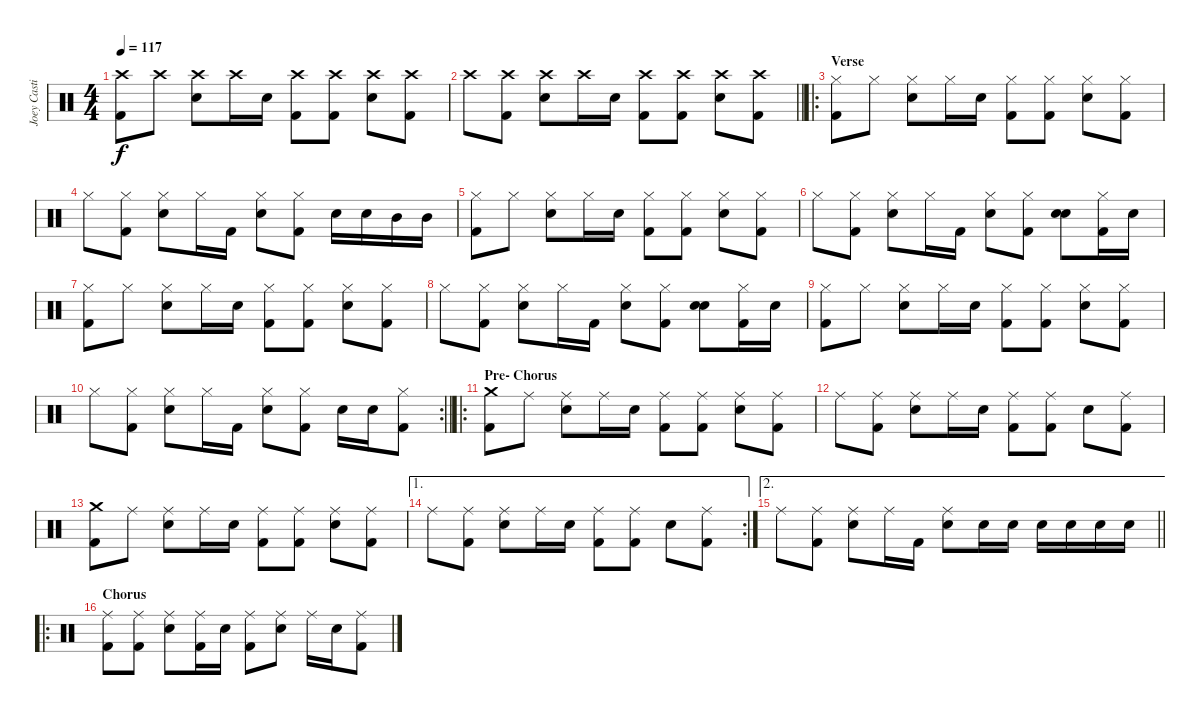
\track ("Joey Castillo" "Joey Casti") {instrument percussion}
\staff {score}
\articulation defaults
\ts (4 4)
\tempo 117
\clef neutral
\ks c
("Crash high (hit)" "Kick (hit) 2").8{dy f} "Crash high (hit)".8 ("Crash high (hit)" "Snare (hit) 2").8 "Crash high (hit)".16 "Snare (hit) 2".16 ("Crash high (hit)" "Kick (hit) 2").8 ("Crash high (hit)" "Kick (hit) 2").8 ("Crash high (hit)" "Snare (hit) 2").8 ("Crash high (hit)" "Kick (hit) 2").8 |
\barLineRight lightlight "Crash high (hit)".8
("Crash high (hit)" "Kick (hit) 2").8 ("Crash high (hit)" "Snare (hit) 2").8 "Crash high (hit)".16 "Snare (hit) 2".16 ("Crash high (hit)" "Kick (hit) 2").8 ("Crash high (hit)" "Kick (hit) 2").8 ("Crash high (hit)" "Snare (hit) 2").8 ("Crash high (hit)" "Kick (hit) 2").8 |
\ro
\section ("" "Verse")
("Hi-Hat (closed)" "Kick (hit) 2").8 "Hi-Hat (closed)".8 ("Hi-Hat (closed)" "Snare (hit) 2").8 "Hi-Hat (closed)".16 "Snare (hit) 2".16 ("Hi-Hat (closed)" "Kick (hit) 2").8 ("Hi-Hat (closed)" "Kick (hit) 2").8 ("Hi-Hat (closed)" "Snare (hit) 2").8 ("Hi-Hat (closed)" "Kick (hit) 2").8 |
"Hi-Hat (closed)".8 ("Hi-Hat (closed)" "Kick (hit) 2").8 ("Hi-Hat (closed)" "Snare (hit) 2").8 "Hi-Hat (closed)".16 "Kick (hit) 2".16 ("Hi-Hat (closed)" "Snare (hit) 2").8 ("Hi-Hat (closed)" "Kick (hit) 2").8 "Snare (hit) 2".16 "Snare (hit) 2".16 "Mid Tom (hit)".16 "Mid Tom (hit)".16 |
("Hi-Hat (closed)" "Kick (hit) 2").8 "Hi-Hat (closed)".8 ("Hi-Hat (closed)" "Snare (hit) 2").8 "Hi-Hat (closed)".16 "Snare (hit) 2".16 ("Hi-Hat (closed)" "Kick (hit) 2").8 ("Hi-Hat (closed)" "Kick (hit) 2").8 ("Hi-Hat (closed)" "Snare (hit) 2").8 ("Hi-Hat (closed)" "Kick (hit) 2").8 |
"Hi-Hat (closed)".8 ("Hi-Hat (closed)" "Kick (hit) 2").8 ("Hi-Hat (closed)" "Snare (hit) 2").8 "Hi-Hat (closed)".16 "Kick (hit) 2".16 ("Hi-Hat (closed)" "Snare (hit) 2").8 ("Hi-Hat (closed)" "Kick (hit) 2").8 ("Snare (hit) 2" "Snare (hit) 2").8{bd 240} ("Hi-Hat (closed)" "Kick (hit) 2").16 "Snare (hit) 2".16 |
("Hi-Hat (closed)" "Kick (hit) 2").8 "Hi-Hat (closed)".8 ("Hi-Hat (closed)" "Snare (hit) 2").8 "Hi-Hat (closed)".16 "Snare (hit) 2".16 ("Hi-Hat (closed)" "Kick (hit) 2").8 ("Hi-Hat (closed)" "Kick (hit) 2").8 ("Hi-Hat (closed)" "Snare (hit) 2").8 ("Hi-Hat (closed)" "Kick (hit) 2").8 |
"Hi-Hat (closed)".8 ("Hi-Hat (closed)" "Kick (hit) 2").8 ("Hi-Hat (closed)" "Snare (hit) 2").8 "Hi-Hat (closed)".16 "Kick (hit) 2".16 ("Hi-Hat (closed)" "Snare (hit) 2").8 ("Hi-Hat (closed)" "Kick (hit) 2").8 ("Snare (hit) 2" "Snare (hit) 2").8{bd 240} ("Hi-Hat (closed)" "Kick (hit) 2").16 "Snare (hit) 2".16 |
("Hi-Hat (closed)" "Kick (hit) 2").8 "Hi-Hat (closed)".8 ("Hi-Hat (closed)" "Snare (hit) 2").8 "Hi-Hat (closed)".16 "Snare (hit) 2".16 ("Hi-Hat (closed)" "Kick (hit) 2").8 ("Hi-Hat (closed)" "Kick (hit) 2").8 ("Hi-Hat (closed)" "Snare (hit) 2").8 ("Hi-Hat (closed)" "Kick (hit) 2").8 |
\rc 2
\barLineRight lightlight "Hi-Hat (closed)".8
("Hi-Hat (closed)" "Kick (hit) 2").8 ("Hi-Hat (closed)" "Snare (hit) 2").8 "Hi-Hat (closed)".16 "Kick (hit) 2".16 ("Hi-Hat (closed)" "Snare (hit) 2").8 ("Hi-Hat (closed)" "Kick (hit) 2").8 "Snare (hit) 2".16 "Snare (hit) 2".16 ("Hi-Hat (closed)" "Kick (hit) 2").8 |
\ro
\section ("" "Pre- Chorus")
("Crash medium (hit)" "Kick (hit) 2").8 "Ride (middle)".8 ("Ride (middle)" "Snare (hit) 2").8 "Ride (middle)".16 "Snare (hit) 2".16 ("Ride (middle)" "Kick (hit) 2").8 ("Ride (middle)" "Kick (hit) 2").8 ("Ride (middle)" "Snare (hit) 2").8 ("Ride (middle)" "Kick (hit) 2").8 |
"Ride (middle)".8 ("Ride (middle)" "Kick (hit) 2").8 ("Ride (middle)" "Snare (hit) 2").8 "Ride (middle)".16 "Snare (hit) 2".16 ("Ride (middle)" "Kick (hit) 2").8 ("Ride (middle)" "Kick (hit) 2").8 "Snare (hit) 2".8 ("Ride (middle)" "Kick (hit) 2").8 |
("Crash medium (hit)" "Kick (hit) 2").8 "Ride (middle)".8 ("Ride (middle)" "Snare (hit) 2").8 "Ride (middle)".16 "Snare (hit) 2".16 ("Ride (middle)" "Kick (hit) 2").8 ("Ride (middle)" "Kick (hit) 2").8 ("Ride (middle)" "Snare (hit) 2").8 ("Ride (middle)" "Kick (hit) 2").8 |
\ae 1
\rc 2 "Ride (middle)".8
("Ride (middle)" "Kick (hit) 2").8 ("Ride (middle)" "Snare (hit) 2").8 "Ride (middle)".16 "Snare (hit) 2".16 ("Ride (middle)" "Kick (hit) 2").8 ("Ride (middle)" "Kick (hit) 2").8 "Snare (hit) 2".8 ("Ride (middle)" "Kick (hit) 2").8 |
\ae 2
\barLineRight lightlight "Ride (middle)".8
("Ride (middle)" "Kick (hit) 2").8 ("Ride (middle)" "Snare (hit) 2").8 "Ride (middle)".16 "Kick (hit) 2".16 ("Ride (middle)" "Snare (hit) 2").8 "Snare (hit) 2".16 "Snare (hit) 2".16 "Snare (hit) 2".16 "Snare (hit) 2".16 "Snare (hit) 2".16 "Snare (hit) 2".16 |
\ro
\section ("" "Chorus")
("Ride (middle)" "Kick (hit) 2").8 ("Ride (middle)" "Kick (hit) 2").8 ("Ride (middle)" "Snare (hit) 2").8 ("Ride (middle)" "Kick (hit) 2").16 "Snare (hit) 2".16 ("Ride (middle)" "Kick (hit) 2").8 ("Ride (middle)" "Snare (hit) 2").8 "Ride (middle)".16 "Snare (hit) 2".16 ("Ride (middle)" "Kick (hit) 2").8
